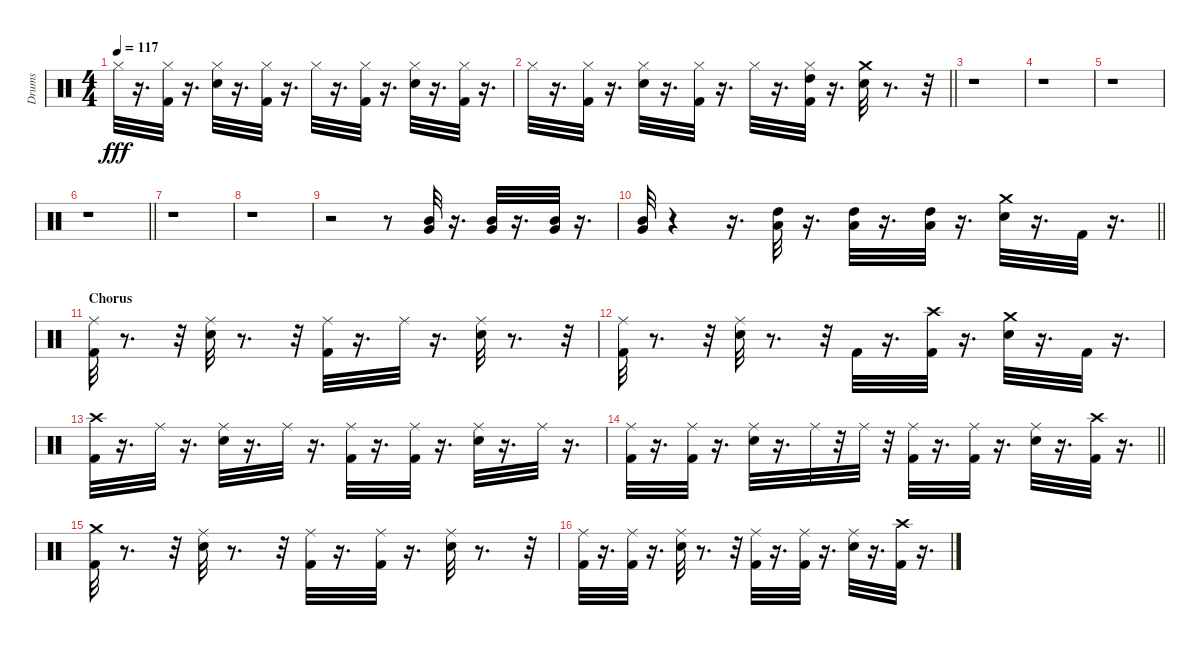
\track ("Drums" "Drums") {instrument percussion}
\staff {score}
\articulation defaults
\ts (4 4)
\tempo 117
\clef neutral
\ks c "Hi-Hat (closed)".32{dy fff}
r.16{d} ("Kick (hit) 2" "Hi-Hat (closed)").32 r.16{d} ("Electric Snare (hit)" "Hi-Hat (closed)").32 r.16{d} ("Kick (hit) 2" "Hi-Hat (closed)").32 r.16{d} "Hi-Hat (closed)".32 r.16{d} ("Kick (hit) 2" "Hi-Hat (closed)").32 r.16{d} ("Electric Snare (hit)" "Hi-Hat (closed)").32 r.16{d} ("Kick (hit) 2" "Hi-Hat (closed)").32 r.16{d} |
\barLineRight lightlight "Hi-Hat (closed)".32
r.16{d} ("Kick (hit) 2" "Hi-Hat (closed)").32 r.16{d} ("Hi-Hat (closed)" "Electric Snare (hit)").32 r.16{d} ("Hi-Hat (closed)" "Kick (hit) 2").32 r.16{d} "Hi-Hat (closed)".32 r.16{d} ("High Tom (hit)" "Kick (hit) 2" "Hi-Hat (closed)").32 r.16{d} ("Electric Snare (hit)" "Crash medium (hit)").32 r.8{d} r.32 |
r.1 |
r.1 |
r.1 |
\barLineRight lightlight
r.1 |
r.1 |
r.1 |
r.2 r.8 ("Mid Tom (hit)" "Very Low Tom (hit)").32 r.16{d} ("Very Low Tom (hit)" "Mid Tom (hit)").32 r.16{d} ("Mid Tom (hit)" "Very Low Tom (hit)").32 r.16{d} |
\barLineRight lightlight
("Mid Tom (hit)" "Very Low Tom (hit)").32 r.4 r.16{d} ("Low Tom (hit)" "High Tom (hit)").32 r.16{d} ("Low Tom (hit)" "High Tom (hit)").32 r.16{d} ("High Tom (hit)" "Low Tom (hit)").32 r.16{d} ("Electric Snare (hit)" "Crash medium (hit)").32 r.16{d} "Kick (hit) 2".32 r.16{d} |
\section ("" "Chorus")
("Kick (hit) 2" "Ride (middle)").32 r.8{d} r.32 ("Electric Snare (hit)" "Ride (middle)").32 r.8{d} r.32 ("Kick (hit) 2" "Ride (middle)").32 r.16{d} "Ride (middle)".32 r.16{d} ("Electric Snare (hit)" "Ride (middle)").32 r.8{d} r.32 |
("Ride (middle)" "Kick (hit) 2").32 r.8{d} r.32 ("Electric Snare (hit)" "Ride (middle)").32 r.8{d} r.32 "Kick (hit) 2".32 r.16{d} ("Crash high (hit)" "Kick (hit) 2").32 r.16{d} ("Electric Snare (hit)" "Crash medium (hit)").32 r.16{d} "Kick (hit) 2".32 r.16{d} |
("Crash high (hit)" "Kick (hit) 2").32 r.16{d} "Ride (middle)".32 r.16{d} ("Electric Snare (hit)" "Ride (middle)").32 r.16{d} "Ride (middle)".32 r.16{d} ("Kick (hit) 2" "Ride (middle)").32 r.16{d} ("Kick (hit) 2" "Ride (middle)").32 r.16{d} ("Ride (middle)" "Electric Snare (hit)").32 r.16{d} "Ride (middle)".32 r.16{d} |
\barLineRight lightlight
("Kick (hit) 2" "Ride (middle)").32 r.16{d} ("Kick (hit) 2" "Ride (middle)").32 r.16{d} ("Electric Snare (hit)" "Ride (middle)").32 r.16{d} "Ride (middle)".32 r.32 "Ride (middle)".32 r.32 ("Ride (middle)" "Kick (hit) 2").32 r.16{d} ("Kick (hit) 2" "Ride (middle)").32 r.16{d} ("Ride (middle)" "Electric Snare (hit)").32 r.16{d} ("Crash high (hit)" "Kick (hit) 2").32 r.16{d} |
("Crash medium (hit)" "Kick (hit) 2").32 r.8{d} r.32 ("Electric Snare (hit)" "Ride (middle)").32 r.8{d} r.32 ("Kick (hit) 2" "Ride (middle)").32 r.16{d} ("Kick (hit) 2" "Ride (middle)").32 r.16{d} ("Ride (middle)" "Electric Snare (hit)").32 r.8{d} r.32 |
("Kick (hit) 2" "Ride (middle)").32 r.16{d} ("Kick (hit) 2" "Ride (middle)").32 r.16{d} ("Electric Snare (hit)" "Ride (middle)").32 r.8{d} r.32 ("Ride (middle)" "Kick (hit) 2").32 r.16{d} ("Kick (hit) 2" "Ride (middle)").32 r.16{d} ("Ride (middle)" "Electric Snare (hit)").32 r.16{d} ("Kick (hit) 2" "Crash high (hit)").32 r.16{d}
